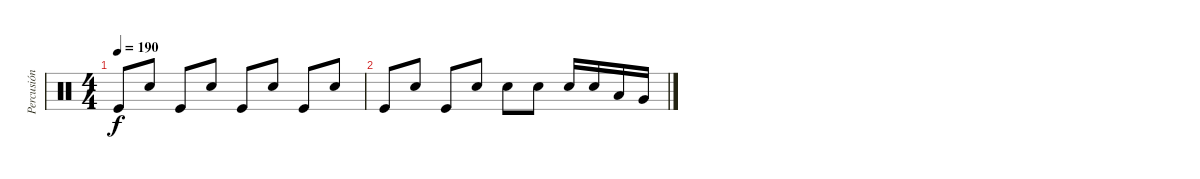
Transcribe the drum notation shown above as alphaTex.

\track ("Percusión" "Percusión") {instrument percussion}
\staff {score}
\articulation defaults
\ts (4 4)
\tempo 190
\clef neutral
\ks c "Kick (hit)".8{dy f} "Electric Snare (hit)".8 "Kick (hit)".8 "Electric Snare (hit)".8 "Kick (hit)".8 "Electric Snare (hit)".8 "Kick (hit)".8 "Electric Snare (hit)".8
|
"Kick (hit)".8 "Electric Snare (hit)".8 "Kick (hit)".8 "Electric Snare (hit)".8 "Electric Snare (hit)".8 "Electric Snare (hit)".8 "Electric Snare (hit)".16 "Electric Snare (hit)".16 "Low Floor Tom (hit)".16 "Very Low Tom (hit)".16
